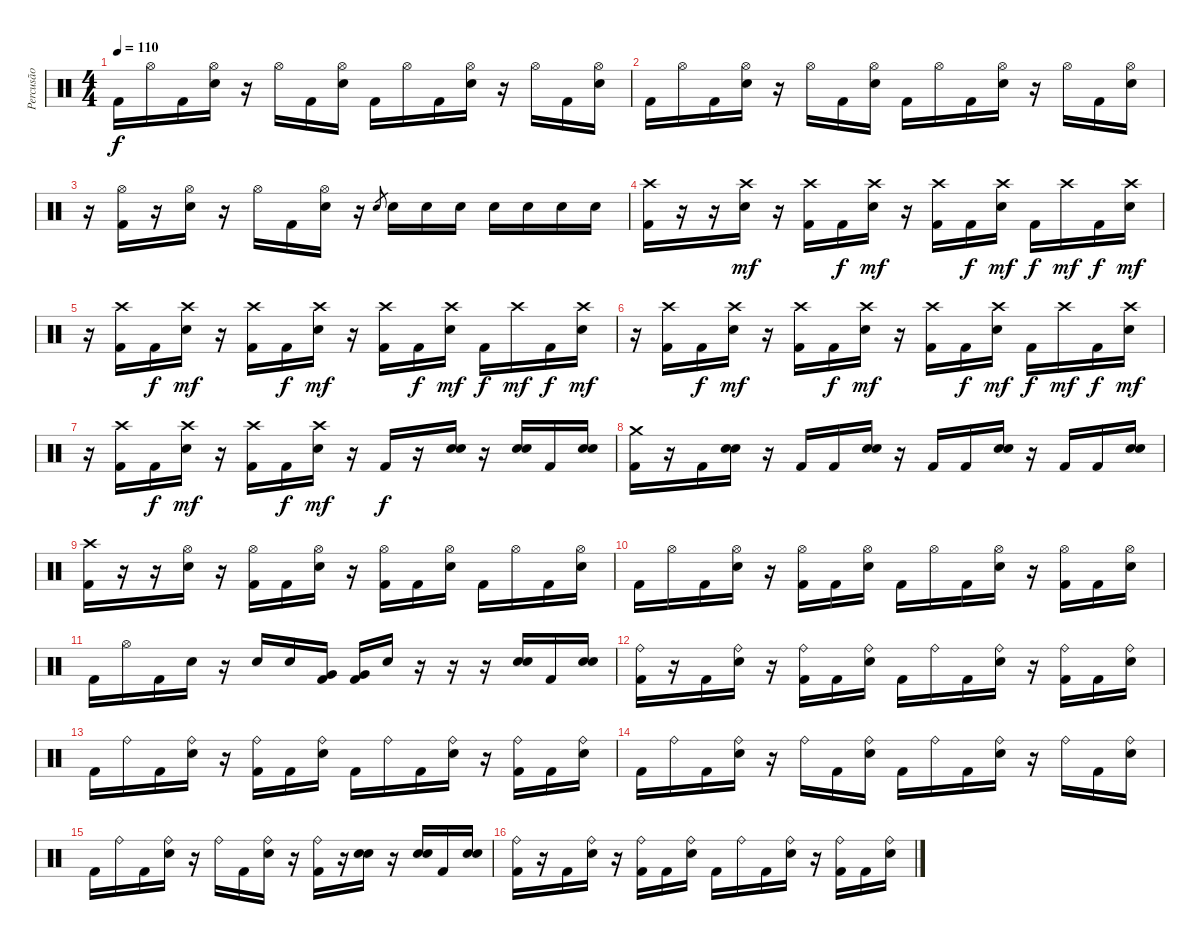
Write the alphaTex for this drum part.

\track ("Percusão" "Percusão") {instrument percussion}
\staff {score}
\articulation defaults
\ts (4 4)
\tempo 110
\clef neutral
\ks c "Kick (hit) 2".16{dy f} "Hi-Hat (open)".16 "Kick (hit) 2".16
("Hi-Hat (open)" "Snare (hit) 2").16 r.16 "Hi-Hat (open)".16 "Kick (hit) 2".16 ("Hi-Hat (open)" "Snare (hit) 2").16 "Kick (hit) 2".16 "Hi-Hat (open)".16 "Kick (hit) 2".16 ("Hi-Hat (open)" "Snare (hit) 2").16 r.16 "Hi-Hat (open)".16 "Kick (hit) 2".16 ("Hi-Hat (open)" "Snare (hit) 2").16 |
"Kick (hit) 2".16 "Hi-Hat (open)".16 "Kick (hit) 2".16 ("Hi-Hat (open)" "Snare (hit) 2").16 r.16 "Hi-Hat (open)".16 "Kick (hit) 2".16 ("Hi-Hat (open)" "Snare (hit) 2").16 "Kick (hit) 2".16 "Hi-Hat (open)".16 "Kick (hit) 2".16 ("Hi-Hat (open)" "Snare (hit) 2").16 r.16 "Hi-Hat (open)".16 "Kick (hit) 2".16 ("Hi-Hat (open)" "Snare (hit) 2").16 |
r.16 ("Hi-Hat (open)" "Kick (hit) 2").16 r.16 ("Hi-Hat (open)" "Snare (hit) 2").16 r.16 "Hi-Hat (open)".16 "Kick (hit) 2".16 ("Hi-Hat (open)" "Snare (hit) 2").16 r.16 "Snare (hit) 2".8{gr} "Snare (hit) 2".16 "Snare (hit) 2".16 "Snare (hit) 2".16 "Snare (hit) 2".16 "Snare (hit) 2".16 "Snare (hit) 2".16 "Snare (hit) 2".16 |
("Crash high (hit)" "Kick (hit) 2").16 r.16 r.16 ("Crash high (hit)" "Snare (hit) 2").16{dy mf} r.16 ("Crash high (hit)" "Kick (hit) 2").16 "Kick (hit) 2".16{dy f} ("Crash high (hit)" "Snare (hit) 2").16{dy mf} r.16 ("Crash high (hit)" "Kick (hit) 2").16 "Kick (hit) 2".16{dy f} ("Crash high (hit)" "Snare (hit) 2").16{dy mf} "Kick (hit) 2".16{dy f} "Crash high (hit)".16{dy mf} "Kick (hit) 2".16{dy f} ("Crash high (hit)" "Snare (hit) 2").16{dy mf} |
r.16 ("Crash high (hit)" "Kick (hit) 2").16 "Kick (hit) 2".16{dy f} ("Crash high (hit)" "Snare (hit) 2").16{dy mf} r.16 ("Crash high (hit)" "Kick (hit) 2").16 "Kick (hit) 2".16{dy f} ("Crash high (hit)" "Snare (hit) 2").16{dy mf} r.16 ("Crash high (hit)" "Kick (hit) 2").16 "Kick (hit) 2".16{dy f} ("Crash high (hit)" "Snare (hit) 2").16{dy mf} "Kick (hit) 2".16{dy f} "Crash high (hit)".16{dy mf} "Kick (hit) 2".16{dy f} ("Crash high (hit)" "Snare (hit) 2").16{dy mf} |
r.16 ("Crash high (hit)" "Kick (hit) 2").16 "Kick (hit) 2".16{dy f} ("Crash high (hit)" "Snare (hit) 2").16{dy mf} r.16 ("Crash high (hit)" "Kick (hit) 2").16 "Kick (hit) 2".16{dy f} ("Crash high (hit)" "Snare (hit) 2").16{dy mf} r.16 ("Crash high (hit)" "Kick (hit) 2").16 "Kick (hit) 2".16{dy f} ("Crash high (hit)" "Snare (hit) 2").16{dy mf} "Kick (hit) 2".16{dy f} "Crash high (hit)".16{dy mf} "Kick (hit) 2".16{dy f} ("Crash high (hit)" "Snare (hit) 2").16{dy mf} |
r.16 ("Crash high (hit)" "Kick (hit) 2").16 "Kick (hit) 2".16{dy f} ("Crash high (hit)" "Snare (hit) 2").16{dy mf} r.16 ("Crash high (hit)" "Kick (hit) 2").16 "Kick (hit) 2".16{dy f} ("Crash high (hit)" "Snare (hit) 2").16{dy mf} r.16 "Kick (hit) 2".16{dy f} r.16 ("Snare (hit) 2" "Snare (hit) 2").16 r.16 ("Snare (hit) 2" "Snare (hit) 2").16 "Kick (hit) 2".16 ("Snare (hit) 2" "Snare (hit) 2").16 |
("Crash medium (hit)" "Kick (hit) 2").16 r.16 "Kick (hit) 2".16 ("Snare (hit) 2" "Snare (hit) 2").16 r.16 "Kick (hit) 2".16 "Kick (hit) 2".16 ("Snare (hit) 2" "Snare (hit) 2").16 r.16 "Kick (hit) 2".16 "Kick (hit) 2".16 ("Snare (hit) 2" "Snare (hit) 2").16 r.16 "Kick (hit) 2".16 "Kick (hit) 2".16 ("Snare (hit) 2" "Snare (hit) 2").16 |
("Crash high (hit)" "Kick (hit) 2").16 r.16 r.16 ("Hi-Hat (open)" "Snare (hit) 2").16 r.16 ("Hi-Hat (open)" "Kick (hit) 2").16 "Kick (hit) 2".16 ("Hi-Hat (open)" "Snare (hit) 2").16 r.16 ("Hi-Hat (open)" "Kick (hit) 2").16 "Kick (hit) 2".16 ("Hi-Hat (open)" "Snare (hit) 2").16 "Kick (hit) 2".16 "Hi-Hat (open)".16 "Kick (hit) 2".16 ("Hi-Hat (open)" "Snare (hit) 2").16 |
"Kick (hit) 2".16 "Hi-Hat (open)".16 "Kick (hit) 2".16 ("Hi-Hat (open)" "Snare (hit) 2").16 r.16 ("Hi-Hat (open)" "Kick (hit) 2").16 "Kick (hit) 2".16 ("Hi-Hat (open)" "Snare (hit) 2").16 "Kick (hit) 2".16 "Hi-Hat (open)".16 "Kick (hit) 2".16 ("Hi-Hat (open)" "Snare (hit) 2").16 r.16 ("Hi-Hat (open)" "Kick (hit) 2").16 "Kick (hit) 2".16 ("Hi-Hat (open)" "Snare (hit) 2").16 |
"Kick (hit) 2".16 "Hi-Hat (open)".16 "Kick (hit) 2".16 "Snare (hit) 2".16 r.16 "Snare (hit) 2".16 "Snare (hit) 2".16 ("Very Low Tom (hit)" "Kick (hit) 2").16 ("Very Low Tom (hit)" "Kick (hit) 2").16 "Snare (hit) 2".16 r.16 r.16 r.16 ("Snare (hit) 2" "Snare (hit) 2").16 "Kick (hit) 2".16 ("Snare (hit) 2" "Snare (hit) 2").16 |
("Ride (bell)" "Kick (hit) 2").16 r.16 "Kick (hit) 2".16 ("Ride (bell)" "Snare (hit) 2").16 r.16 ("Ride (bell)" "Kick (hit) 2").16 "Kick (hit) 2".16 ("Ride (bell)" "Snare (hit) 2").16 "Kick (hit) 2".16 "Ride (bell)".16 "Kick (hit) 2".16 ("Ride (bell)" "Snare (hit) 2").16 r.16 ("Ride (bell)" "Kick (hit) 2").16 "Kick (hit) 2".16 ("Ride (bell)" "Snare (hit) 2").16 |
"Kick (hit) 2".16 "Ride (bell)".16 "Kick (hit) 2".16 ("Ride (bell)" "Snare (hit) 2").16 r.16 ("Ride (bell)" "Kick (hit) 2").16 "Kick (hit) 2".16 ("Ride (bell)" "Snare (hit) 2").16 "Kick (hit) 2".16 "Ride (bell)".16 "Kick (hit) 2".16 ("Ride (bell)" "Snare (hit) 2").16 r.16 ("Ride (bell)" "Kick (hit) 2").16 "Kick (hit) 2".16 ("Ride (bell)" "Snare (hit) 2").16 |
"Kick (hit) 2".16 "Ride (bell)".16 "Kick (hit) 2".16 ("Ride (bell)" "Snare (hit) 2").16 r.16 "Ride (bell)".16 "Kick (hit) 2".16 ("Ride (bell)" "Snare (hit) 2").16 "Kick (hit) 2".16 "Ride (bell)".16 "Kick (hit) 2".16 ("Ride (bell)" "Snare (hit) 2").16 r.16 "Ride (bell)".16 "Kick (hit) 2".16 ("Ride (bell)" "Snare (hit) 2").16 |
"Kick (hit) 2".16 "Ride (bell)".16 "Kick (hit) 2".16 ("Ride (bell)" "Snare (hit) 2").16 r.16 "Ride (bell)".16 "Kick (hit) 2".16 ("Ride (bell)" "Snare (hit) 2").16 r.16 ("Ride (bell)" "Kick (hit) 2").16 r.16 ("Snare (hit) 2" "Snare (hit) 2").16 r.16 ("Snare (hit) 2" "Snare (hit) 2").16 "Kick (hit) 2".16 ("Snare (hit) 2" "Snare (hit) 2").16 |
("Ride (bell)" "Kick (hit) 2").16 r.16 "Kick (hit) 2".16 ("Ride (bell)" "Snare (hit) 2").16 r.16 ("Ride (bell)" "Kick (hit) 2").16 "Kick (hit) 2".16 ("Ride (bell)" "Snare (hit) 2").16 "Kick (hit) 2".16 "Ride (bell)".16 "Kick (hit) 2".16 ("Ride (bell)" "Snare (hit) 2").16 r.16 ("Ride (bell)" "Kick (hit) 2").16 "Kick (hit) 2".16 ("Ride (bell)" "Snare (hit) 2").16
